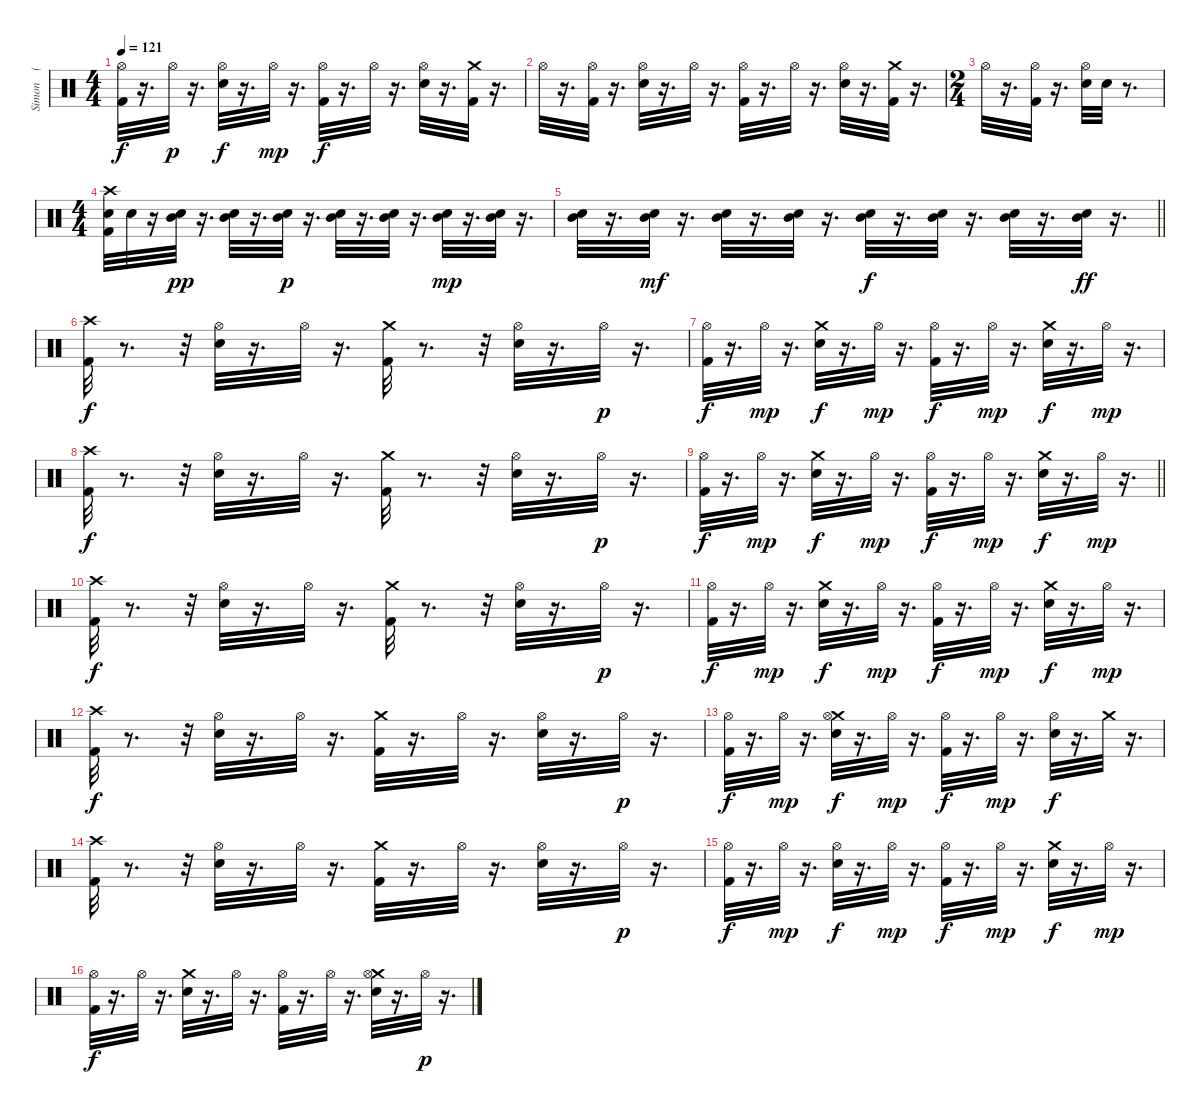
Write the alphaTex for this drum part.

\track ("Simon    (Drums)" "Simon    (") {instrument percussion}
\staff {score}
\articulation defaults
\ts (4 4)
\tempo 121
\clef neutral
\ks c
("Hi-Hat (open)" "Kick (hit) 2").32{dy f} r.16{d} "Hi-Hat (open)".32{dy p} r.16{d} ("Hi-Hat (open)" "Electric Snare (hit)").32{dy f} r.16{d} "Hi-Hat (open)".32{dy mp} r.16{d} ("Hi-Hat (open)" "Kick (hit) 2").32{dy f} r.16{d} "Hi-Hat (open)".32 r.16{d} ("Hi-Hat (open)" "Electric Snare (hit)").32 r.16{d} ("Crash medium (hit)" "Kick (hit) 2").32 r.16{d} |
"Hi-Hat (open)".32 r.16{d} ("Kick (hit) 2" "Hi-Hat (open)").32 r.16{d} ("Hi-Hat (open)" "Electric Snare (hit)").32 r.16{d} "Hi-Hat (open)".32 r.16{d} ("Hi-Hat (open)" "Kick (hit) 2").32 r.16{d} "Hi-Hat (open)".32 r.16{d} ("Hi-Hat (open)" "Electric Snare (hit)").32 r.16{d} ("Crash medium (hit)" "Kick (hit) 2").32 r.16{d} |
\ts (2 4)
"Hi-Hat (open)".32 r.16{d} ("Kick (hit) 2" "Hi-Hat (open)").32 r.16{d} ("Electric Snare (hit)" "Hi-Hat (open)").32 "Snare (hit) 2".32 r.8{d} |
\ts (4 4)
("Crash high (hit)" "Kick (hit) 2" "Electric Snare (hit)").32 "Snare (hit) 2".32 r.16 ("Mid Tom (hit)" "Electric Snare (hit)").32{dy pp} r.16{d} ("Mid Tom (hit)" "Electric Snare (hit)").32 r.16{d} ("Mid Tom (hit)" "Electric Snare (hit)").32{dy p} r.16{d} ("Mid Tom (hit)" "Electric Snare (hit)").32 r.16{d} ("Mid Tom (hit)" "Electric Snare (hit)").32 r.16{d} ("Mid Tom (hit)" "Electric Snare (hit)").32{dy mp} r.16{d} ("Mid Tom (hit)" "Electric Snare (hit)").32 r.16{d} |
\barLineRight lightlight
("Mid Tom (hit)" "Electric Snare (hit)").32 r.16{d} ("Mid Tom (hit)" "Electric Snare (hit)").32{dy mf} r.16{d} ("Mid Tom (hit)" "Electric Snare (hit)").32 r.16{d} ("Mid Tom (hit)" "Electric Snare (hit)").32 r.16{d} ("Mid Tom (hit)" "Electric Snare (hit)").32{dy f} r.16{d} ("Mid Tom (hit)" "Electric Snare (hit)").32 r.16{d} ("Mid Tom (hit)" "Electric Snare (hit)").32 r.16{d} ("Mid Tom (hit)" "Electric Snare (hit)").32{dy ff} r.16{d} |
("Kick (hit) 2" "Crash high (hit)").32{dy f} r.8{d} r.32 ("Electric Snare (hit)" "Hi-Hat (open)").32 r.16{d} "Hi-Hat (open)".32 r.16{d} ("Kick (hit) 2" "Crash medium (hit)").32 r.8{d} r.32 ("Hi-Hat (open)" "Electric Snare (hit)").32 r.16{d} "Hi-Hat (open)".32{dy p} r.16{d} |
("Hi-Hat (open)" "Kick (hit) 2").32{dy f} r.16{d} "Hi-Hat (open)".32{dy mp} r.16{d} ("Crash medium (hit)" "Electric Snare (hit)").32{dy f} r.16{d} "Hi-Hat (open)".32{dy mp} r.16{d} ("Hi-Hat (open)" "Kick (hit) 2").32{dy f} r.16{d} "Hi-Hat (open)".32{dy mp} r.16{d} ("Crash medium (hit)" "Electric Snare (hit)").32{dy f} r.16{d} "Hi-Hat (open)".32{dy mp} r.16{d} |
("Kick (hit) 2" "Crash high (hit)").32{dy f} r.8{d} r.32 ("Electric Snare (hit)" "Hi-Hat (open)").32 r.16{d} "Hi-Hat (open)".32 r.16{d} ("Kick (hit) 2" "Crash medium (hit)").32 r.8{d} r.32 ("Hi-Hat (open)" "Electric Snare (hit)").32 r.16{d} "Hi-Hat (open)".32{dy p} r.16{d} |
\barLineRight lightlight
("Hi-Hat (open)" "Kick (hit) 2").32{dy f} r.16{d} "Hi-Hat (open)".32{dy mp} r.16{d} ("Crash medium (hit)" "Electric Snare (hit)").32{dy f} r.16{d} "Hi-Hat (open)".32{dy mp} r.16{d} ("Hi-Hat (open)" "Kick (hit) 2").32{dy f} r.16{d} "Hi-Hat (open)".32{dy mp} r.16{d} ("Crash medium (hit)" "Electric Snare (hit)").32{dy f} r.16{d} "Hi-Hat (open)".32{dy mp} r.16{d} |
("Kick (hit) 2" "Crash high (hit)").32{dy f} r.8{d} r.32 ("Electric Snare (hit)" "Hi-Hat (open)").32 r.16{d} "Hi-Hat (open)".32 r.16{d} ("Kick (hit) 2" "Crash medium (hit)").32 r.8{d} r.32 ("Hi-Hat (open)" "Electric Snare (hit)").32 r.16{d} "Hi-Hat (open)".32{dy p} r.16{d} |
("Hi-Hat (open)" "Kick (hit) 2").32{dy f} r.16{d} "Hi-Hat (open)".32{dy mp} r.16{d} ("Crash medium (hit)" "Electric Snare (hit)").32{dy f} r.16{d} "Hi-Hat (open)".32{dy mp} r.16{d} ("Hi-Hat (open)" "Kick (hit) 2").32{dy f} r.16{d} "Hi-Hat (open)".32{dy mp} r.16{d} ("Crash medium (hit)" "Electric Snare (hit)").32{dy f} r.16{d} "Hi-Hat (open)".32{dy mp} r.16{d} |
("Kick (hit) 2" "Crash high (hit)").32{dy f} r.8{d} r.32 ("Electric Snare (hit)" "Hi-Hat (open)").32 r.16{d} "Hi-Hat (open)".32 r.16{d} ("Crash medium (hit)" "Kick (hit) 2").32 r.16{d} "Hi-Hat (open)".32 r.16{d} ("Hi-Hat (open)" "Electric Snare (hit)").32 r.16{d} "Hi-Hat (open)".32{dy p} r.16{d} |
("Hi-Hat (open)" "Kick (hit) 2").32{dy f} r.16{d} "Hi-Hat (open)".32{dy mp} r.16{d} ("Crash medium (hit)" "Hi-Hat (open)" "Electric Snare (hit)").32{dy f} r.16{d} "Hi-Hat (open)".32{dy mp} r.16{d} ("Hi-Hat (open)" "Kick (hit) 2").32{dy f} r.16{d} "Hi-Hat (open)".32{dy mp} r.16{d} ("Hi-Hat (open)" "Electric Snare (hit)").32{dy f} r.16{d} "Crash medium (hit)".32 r.16{d} |
("Kick (hit) 2" "Crash high (hit)").32 r.8{d} r.32 ("Electric Snare (hit)" "Hi-Hat (open)").32 r.16{d} "Hi-Hat (open)".32 r.16{d} ("Kick (hit) 2" "Crash medium (hit)").32 r.16{d} "Hi-Hat (open)".32 r.16{d} ("Hi-Hat (open)" "Electric Snare (hit)").32 r.16{d} "Hi-Hat (open)".32{dy p} r.16{d} |
("Hi-Hat (open)" "Kick (hit) 2").32{dy f} r.16{d} "Hi-Hat (open)".32{dy mp} r.16{d} ("Hi-Hat (open)" "Electric Snare (hit)").32{dy f} r.16{d} "Hi-Hat (open)".32{dy mp} r.16{d} ("Hi-Hat (open)" "Kick (hit) 2").32{dy f} r.16{d} "Hi-Hat (open)".32{dy mp} r.16{d} ("Crash medium (hit)" "Electric Snare (hit)").32{dy f} r.16{d} "Hi-Hat (open)".32{dy mp} r.16{d} |
("Hi-Hat (open)" "Kick (hit) 2").32{dy f} r.16{d} "Hi-Hat (open)".32 r.16{d} ("Crash medium (hit)" "Electric Snare (hit)").32 r.16{d} "Hi-Hat (open)".32 r.16{d} ("Hi-Hat (open)" "Kick (hit) 2").32 r.16{d} "Hi-Hat (open)".32 r.16{d} ("Crash medium (hit)" "Hi-Hat (open)" "Electric Snare (hit)").32 r.16{d} "Hi-Hat (open)".32{dy p} r.16{d}
